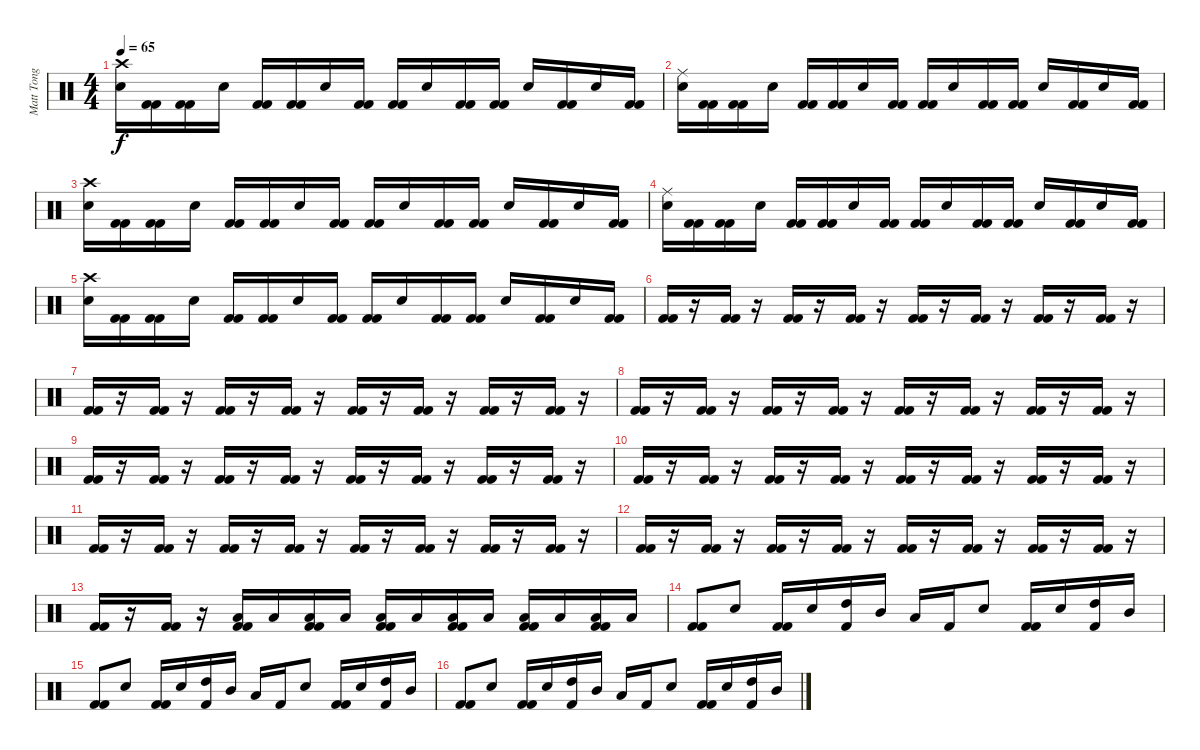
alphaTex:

\track ("Matt Tong" "Matt Tong") {instrument percussion}
\staff {score}
\articulation defaults
\ts (4 4)
\tempo 65
\clef neutral
\ks c
("Crash high (hit)" "Snare (hit) 2").16{dy f} ("Kick (hit) 2" "Kick (hit) 2").16 ("Kick (hit) 2" "Kick (hit) 2").16 "Snare (hit) 2".16 ("Kick (hit) 2" "Kick (hit) 2").16 ("Kick (hit) 2" "Kick (hit) 2").16 "Snare (hit) 2".16 ("Kick (hit) 2" "Kick (hit) 2").16 ("Kick (hit) 2" "Kick (hit) 2").16 "Snare (hit) 2".16 ("Kick (hit) 2" "Kick (hit) 2").16 ("Kick (hit) 2" "Kick (hit) 2").16 "Snare (hit) 2".16 ("Kick (hit) 2" "Kick (hit) 2").16 "Snare (hit) 2".16 ("Kick (hit) 2" "Kick (hit) 2").16 |
("Ride (middle)" "Snare (hit) 2").16 ("Kick (hit) 2" "Kick (hit) 2").16 ("Kick (hit) 2" "Kick (hit) 2").16 "Snare (hit) 2".16 ("Kick (hit) 2" "Kick (hit) 2").16 ("Kick (hit) 2" "Kick (hit) 2").16 "Snare (hit) 2".16 ("Kick (hit) 2" "Kick (hit) 2").16 ("Kick (hit) 2" "Kick (hit) 2").16 "Snare (hit) 2".16 ("Kick (hit) 2" "Kick (hit) 2").16 ("Kick (hit) 2" "Kick (hit) 2").16 "Snare (hit) 2".16 ("Kick (hit) 2" "Kick (hit) 2").16 "Snare (hit) 2".16 ("Kick (hit) 2" "Kick (hit) 2").16 |
("Crash high (hit)" "Snare (hit) 2").16 ("Kick (hit) 2" "Kick (hit) 2").16 ("Kick (hit) 2" "Kick (hit) 2").16 "Snare (hit) 2".16 ("Kick (hit) 2" "Kick (hit) 2").16 ("Kick (hit) 2" "Kick (hit) 2").16 "Snare (hit) 2".16 ("Kick (hit) 2" "Kick (hit) 2").16 ("Kick (hit) 2" "Kick (hit) 2").16 "Snare (hit) 2".16 ("Kick (hit) 2" "Kick (hit) 2").16 ("Kick (hit) 2" "Kick (hit) 2").16 "Snare (hit) 2".16 ("Kick (hit) 2" "Kick (hit) 2").16 "Snare (hit) 2".16 ("Kick (hit) 2" "Kick (hit) 2").16 |
("Ride (middle)" "Snare (hit) 2").16 ("Kick (hit) 2" "Kick (hit) 2").16 ("Kick (hit) 2" "Kick (hit) 2").16 "Snare (hit) 2".16 ("Kick (hit) 2" "Kick (hit) 2").16 ("Kick (hit) 2" "Kick (hit) 2").16 "Snare (hit) 2".16 ("Kick (hit) 2" "Kick (hit) 2").16 ("Kick (hit) 2" "Kick (hit) 2").16 "Snare (hit) 2".16 ("Kick (hit) 2" "Kick (hit) 2").16 ("Kick (hit) 2" "Kick (hit) 2").16 "Snare (hit) 2".16 ("Kick (hit) 2" "Kick (hit) 2").16 "Snare (hit) 2".16 ("Kick (hit) 2" "Kick (hit) 2").16 |
("Crash high (hit)" "Snare (hit) 2").16 ("Kick (hit) 2" "Kick (hit) 2").16 ("Kick (hit) 2" "Kick (hit) 2").16 "Snare (hit) 2".16 ("Kick (hit) 2" "Kick (hit) 2").16 ("Kick (hit) 2" "Kick (hit) 2").16 "Snare (hit) 2".16 ("Kick (hit) 2" "Kick (hit) 2").16 ("Kick (hit) 2" "Kick (hit) 2").16 "Snare (hit) 2".16 ("Kick (hit) 2" "Kick (hit) 2").16 ("Kick (hit) 2" "Kick (hit) 2").16 "Snare (hit) 2".16 ("Kick (hit) 2" "Kick (hit) 2").16 "Snare (hit) 2".16 ("Kick (hit) 2" "Kick (hit) 2").16 |
("Kick (hit) 2" "Kick (hit) 2").16 r.16 ("Kick (hit) 2" "Kick (hit) 2").16 r.16 ("Kick (hit) 2" "Kick (hit) 2").16 r.16 ("Kick (hit) 2" "Kick (hit) 2").16 r.16 ("Kick (hit) 2" "Kick (hit) 2").16 r.16 ("Kick (hit) 2" "Kick (hit) 2").16 r.16 ("Kick (hit) 2" "Kick (hit) 2").16 r.16 ("Kick (hit) 2" "Kick (hit) 2").16 r.16 |
("Kick (hit) 2" "Kick (hit) 2").16 r.16 ("Kick (hit) 2" "Kick (hit) 2").16 r.16 ("Kick (hit) 2" "Kick (hit) 2").16 r.16 ("Kick (hit) 2" "Kick (hit) 2").16 r.16 ("Kick (hit) 2" "Kick (hit) 2").16 r.16 ("Kick (hit) 2" "Kick (hit) 2").16 r.16 ("Kick (hit) 2" "Kick (hit) 2").16 r.16 ("Kick (hit) 2" "Kick (hit) 2").16 r.16 |
("Kick (hit) 2" "Kick (hit) 2").16 r.16 ("Kick (hit) 2" "Kick (hit) 2").16 r.16 ("Kick (hit) 2" "Kick (hit) 2").16 r.16 ("Kick (hit) 2" "Kick (hit) 2").16 r.16 ("Kick (hit) 2" "Kick (hit) 2").16 r.16 ("Kick (hit) 2" "Kick (hit) 2").16 r.16 ("Kick (hit) 2" "Kick (hit) 2").16 r.16 ("Kick (hit) 2" "Kick (hit) 2").16 r.16 |
("Kick (hit) 2" "Kick (hit) 2").16 r.16 ("Kick (hit) 2" "Kick (hit) 2").16 r.16 ("Kick (hit) 2" "Kick (hit) 2").16 r.16 ("Kick (hit) 2" "Kick (hit) 2").16 r.16 ("Kick (hit) 2" "Kick (hit) 2").16 r.16 ("Kick (hit) 2" "Kick (hit) 2").16 r.16 ("Kick (hit) 2" "Kick (hit) 2").16 r.16 ("Kick (hit) 2" "Kick (hit) 2").16 r.16 |
("Kick (hit) 2" "Kick (hit) 2").16 r.16 ("Kick (hit) 2" "Kick (hit) 2").16 r.16 ("Kick (hit) 2" "Kick (hit) 2").16 r.16 ("Kick (hit) 2" "Kick (hit) 2").16 r.16 ("Kick (hit) 2" "Kick (hit) 2").16 r.16 ("Kick (hit) 2" "Kick (hit) 2").16 r.16 ("Kick (hit) 2" "Kick (hit) 2").16 r.16 ("Kick (hit) 2" "Kick (hit) 2").16 r.16 |
("Kick (hit) 2" "Kick (hit) 2").16 r.16 ("Kick (hit) 2" "Kick (hit) 2").16 r.16 ("Kick (hit) 2" "Kick (hit) 2").16 r.16 ("Kick (hit) 2" "Kick (hit) 2").16 r.16 ("Kick (hit) 2" "Kick (hit) 2").16 r.16 ("Kick (hit) 2" "Kick (hit) 2").16 r.16 ("Kick (hit) 2" "Kick (hit) 2").16 r.16 ("Kick (hit) 2" "Kick (hit) 2").16 r.16 |
("Kick (hit) 2" "Kick (hit) 2").16 r.16 ("Kick (hit) 2" "Kick (hit) 2").16 r.16 ("Kick (hit) 2" "Kick (hit) 2").16 r.16 ("Kick (hit) 2" "Kick (hit) 2").16 r.16 ("Kick (hit) 2" "Kick (hit) 2").16 r.16 ("Kick (hit) 2" "Kick (hit) 2").16 r.16 ("Kick (hit) 2" "Kick (hit) 2").16 r.16 ("Kick (hit) 2" "Kick (hit) 2").16 r.16 |
("Kick (hit) 2" "Kick (hit) 2").16 r.16 ("Kick (hit) 2" "Kick (hit) 2").16 r.16 ("Low Tom (hit)" "Kick (hit) 2" "Kick (hit) 2").16 "Low Tom (hit)".16 ("Low Tom (hit)" "Kick (hit) 2" "Kick (hit) 2").16 "Low Tom (hit)".16 ("Low Tom (hit)" "Kick (hit) 2" "Kick (hit) 2").16 "Low Tom (hit)".16 ("Low Tom (hit)" "Kick (hit) 2" "Kick (hit) 2").16 "Low Tom (hit)".16 ("Low Tom (hit)" "Kick (hit) 2" "Kick (hit) 2").16 "Low Tom (hit)".16 ("Low Tom (hit)" "Kick (hit) 2" "Kick (hit) 2").16 "Low Tom (hit)".16 |
("Kick (hit) 2" "Kick (hit) 2").8 "Snare (hit) 2".8 ("Kick (hit) 2" "Kick (hit) 2").16 "Snare (hit) 2".16 ("High Tom (hit)" "Kick (hit) 2").16 "Mid Tom (hit)".16 "Low Tom (hit)".16 "Kick (hit) 2".16 "Snare (hit) 2".8 ("Kick (hit) 2" "Kick (hit) 2").16 "Snare (hit) 2".16 ("High Tom (hit)" "Kick (hit) 2").16 "Mid Tom (hit)".16 |
("Kick (hit) 2" "Kick (hit) 2").8 "Snare (hit) 2".8 ("Kick (hit) 2" "Kick (hit) 2").16 "Snare (hit) 2".16 ("High Tom (hit)" "Kick (hit) 2").16 "Mid Tom (hit)".16 "Low Tom (hit)".16 "Kick (hit) 2".16 "Snare (hit) 2".8 ("Kick (hit) 2" "Kick (hit) 2").16 "Snare (hit) 2".16 ("High Tom (hit)" "Kick (hit) 2").16 "Mid Tom (hit)".16 |
("Kick (hit) 2" "Kick (hit) 2").8 "Snare (hit) 2".8 ("Kick (hit) 2" "Kick (hit) 2").16 "Snare (hit) 2".16 ("High Tom (hit)" "Kick (hit) 2").16 "Mid Tom (hit)".16 "Low Tom (hit)".16 "Kick (hit) 2".16 "Snare (hit) 2".8 ("Kick (hit) 2" "Kick (hit) 2").16 "Snare (hit) 2".16 ("High Tom (hit)" "Kick (hit) 2").16 "Mid Tom (hit)".16
